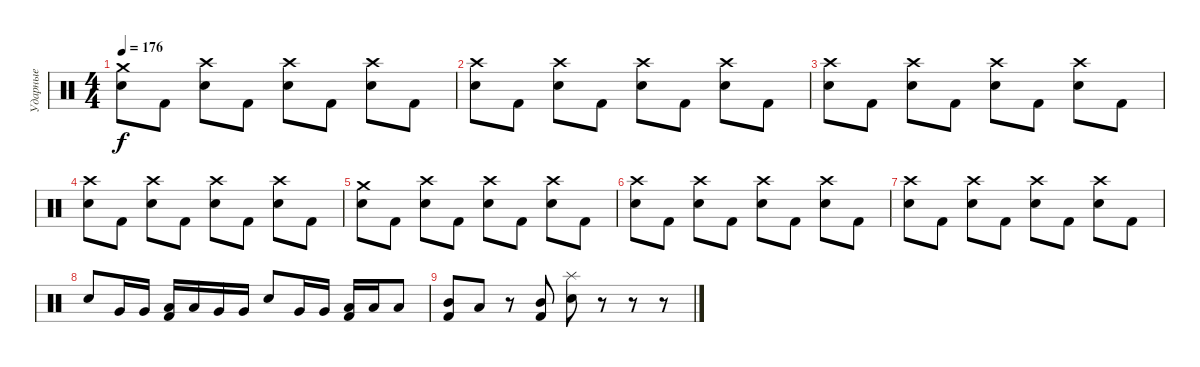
\track ("Ударные" "Ударные") {instrument percussion}
\staff {score}
\articulation defaults
\ts (4 4)
\tempo 176
\clef neutral
\ks c
("Crash medium (hit)" "Snare (hit) 2").8{dy f} "Kick (hit) 2".8 ("Crash high (hit)" "Snare (hit) 2").8 "Kick (hit) 2".8 ("Crash high (hit)" "Snare (hit) 2").8 "Kick (hit) 2".8 ("Crash high (hit)" "Snare (hit) 2").8 "Kick (hit) 2".8 |
("Crash high (hit)" "Snare (hit) 2").8 "Kick (hit) 2".8 ("Crash high (hit)" "Snare (hit) 2").8 "Kick (hit) 2".8 ("Crash high (hit)" "Snare (hit) 2").8 "Kick (hit) 2".8 ("Crash high (hit)" "Snare (hit) 2").8 "Kick (hit) 2".8 |
("Crash high (hit)" "Snare (hit) 2").8 "Kick (hit) 2".8 ("Crash high (hit)" "Snare (hit) 2").8 "Kick (hit) 2".8 ("Crash high (hit)" "Snare (hit) 2").8 "Kick (hit) 2".8 ("Crash high (hit)" "Snare (hit) 2").8 "Kick (hit) 2".8 |
("Crash high (hit)" "Snare (hit) 2").8 "Kick (hit) 2".8 ("Crash high (hit)" "Snare (hit) 2").8 "Kick (hit) 2".8 ("Crash high (hit)" "Snare (hit) 2").8 "Kick (hit) 2".8 ("Crash high (hit)" "Snare (hit) 2").8 "Kick (hit) 2".8 |
("Crash medium (hit)" "Snare (hit) 2").8 "Kick (hit) 2".8 ("Crash high (hit)" "Snare (hit) 2").8 "Kick (hit) 2".8 ("Crash high (hit)" "Snare (hit) 2").8 "Kick (hit) 2".8 ("Crash high (hit)" "Snare (hit) 2").8 "Kick (hit) 2".8 |
("Crash high (hit)" "Snare (hit) 2").8 "Kick (hit) 2".8 ("Crash high (hit)" "Snare (hit) 2").8 "Kick (hit) 2".8 ("Crash high (hit)" "Snare (hit) 2").8 "Kick (hit) 2".8 ("Crash high (hit)" "Snare (hit) 2").8 "Kick (hit) 2".8 |
("Crash high (hit)" "Snare (hit) 2").8 "Kick (hit) 2".8 ("Crash high (hit)" "Snare (hit) 2").8 "Kick (hit) 2".8 ("Crash high (hit)" "Snare (hit) 2").8 "Kick (hit) 2".8 ("Crash high (hit)" "Snare (hit) 2").8 "Kick (hit) 2".8 |
"Snare (hit) 2".8 "Very Low Tom (hit)".16 "Very Low Tom (hit)".16 ("Low Tom (hit)" "Kick (hit) 2").16 "Low Tom (hit)".16 "Very Low Tom (hit)".16 "Very Low Tom (hit)".16 "Snare (hit) 2".8 "Very Low Tom (hit)".16 "Very Low Tom (hit)".16 ("Low Tom (hit)" "Kick (hit) 2").16 "Low Tom (hit)".16 "Low Tom (hit)".8 |
("Mid Tom (hit)" "Kick (hit) 2").8 "Low Tom (hit)".8 r.8 ("Mid Tom (hit)" "Kick (hit) 2").8 ("Splash (hit)" "Snare (hit) 2").8 r.8 r.8 r.8
